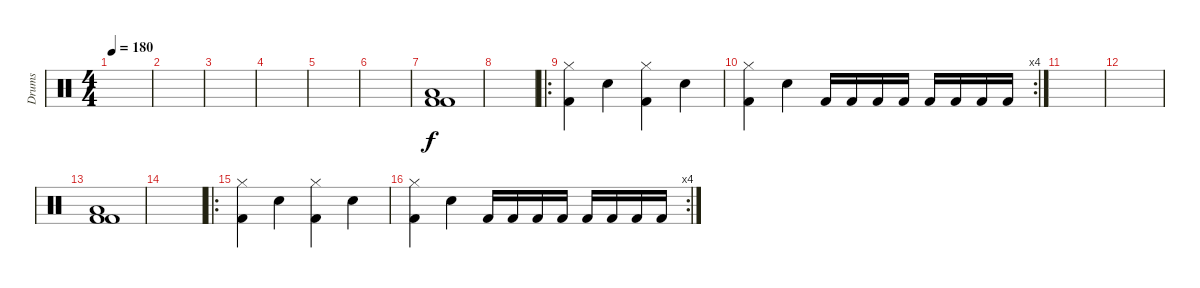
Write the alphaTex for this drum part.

\track ("Drums" "Drums") {instrument percussion}
\staff {score}
\articulation defaults
\ts (4 4)
\tempo 180
\clef neutral
\ks c
|
|
|
|
|
|
("Low Tom (hit)" "Kick (hit) 2" "Kick (hit) 2").1{volume 12} |
|
\ro
("Hi-Hat (closed)" "Kick (hit) 2").4 "Electric Snare (hit)".4 ("Hi-Hat (closed)" "Kick (hit) 2").4 "Electric Snare (hit)".4 |
\rc 4
("Hi-Hat (closed)" "Kick (hit) 2").4 "Electric Snare (hit)".4 "Kick (hit) 2".16 "Kick (hit) 2".16 "Kick (hit) 2".16 "Kick (hit) 2".16 "Kick (hit) 2".16 "Kick (hit) 2".16 "Kick (hit) 2".16 "Kick (hit) 2".16 |
|
|
("Low Tom (hit)" "Kick (hit) 2" "Kick (hit) 2").1{volume 12} |
|
\ro
("Hi-Hat (closed)" "Kick (hit) 2").4 "Electric Snare (hit)".4 ("Hi-Hat (closed)" "Kick (hit) 2").4 "Electric Snare (hit)".4 |
\rc 4
("Hi-Hat (closed)" "Kick (hit) 2").4 "Electric Snare (hit)".4 "Kick (hit) 2".16 "Kick (hit) 2".16 "Kick (hit) 2".16 "Kick (hit) 2".16 "Kick (hit) 2".16 "Kick (hit) 2".16 "Kick (hit) 2".16 "Kick (hit) 2".16
